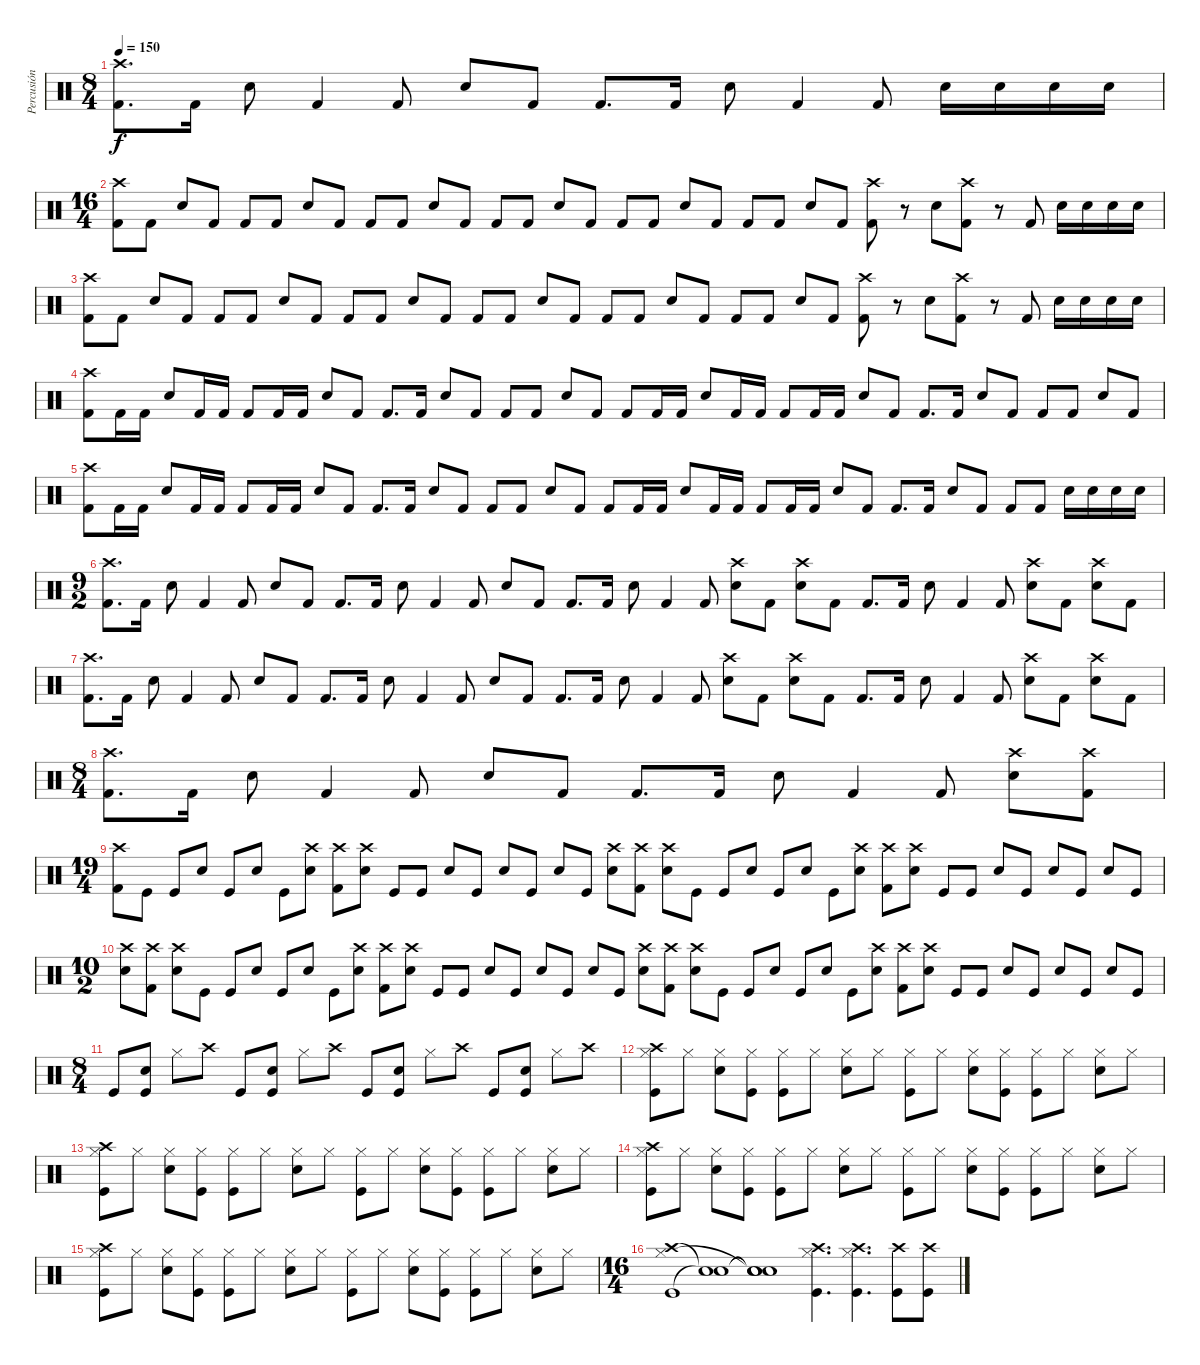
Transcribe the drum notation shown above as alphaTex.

\track ("Percusión" "Percusión") {instrument percussion bank 10}
\staff {score}
\articulation defaults
\ts (8 4)
\tempo 150
\clef neutral
\ks c
("Kick (hit) 2" "Crash high (hit)").8{d dy f} "Kick (hit) 2".16 "Snare (hit) 2".8 "Kick (hit) 2".4 "Kick (hit) 2".8 "Snare (hit) 2".8 "Kick (hit) 2".8 "Kick (hit) 2".8{d} "Kick (hit) 2".16 "Snare (hit) 2".8 "Kick (hit) 2".4 "Kick (hit) 2".8 "Snare (hit) 2".16 "Snare (hit) 2".16 "Snare (hit) 2".16 "Snare (hit) 2".16 |
\ts (16 4)
("Kick (hit) 2" "Crash high (hit)").8 "Kick (hit) 2".8 "Snare (hit) 2".8 "Kick (hit) 2".8 "Kick (hit) 2".8 "Kick (hit) 2".8 "Snare (hit) 2".8 "Kick (hit) 2".8 "Kick (hit) 2".8 "Kick (hit) 2".8 "Snare (hit) 2".8 "Kick (hit) 2".8 "Kick (hit) 2".8 "Kick (hit) 2".8 "Snare (hit) 2".8 "Kick (hit) 2".8 "Kick (hit) 2".8 "Kick (hit) 2".8 "Snare (hit) 2".8 "Kick (hit) 2".8 "Kick (hit) 2".8 "Kick (hit) 2".8 "Snare (hit) 2".8 "Kick (hit) 2".8 ("Kick (hit) 2" "Crash high (hit)").8 r.8 "Snare (hit) 2".8 ("Kick (hit) 2" "Crash high (hit)").8 r.8 "Kick (hit) 2".8 "Snare (hit) 2".16 "Snare (hit) 2".16 "Snare (hit) 2".16 "Snare (hit) 2".16 |
("Kick (hit) 2" "Crash high (hit)").8 "Kick (hit) 2".8 "Snare (hit) 2".8 "Kick (hit) 2".8 "Kick (hit) 2".8 "Kick (hit) 2".8 "Snare (hit) 2".8 "Kick (hit) 2".8 "Kick (hit) 2".8 "Kick (hit) 2".8 "Snare (hit) 2".8 "Kick (hit) 2".8 "Kick (hit) 2".8 "Kick (hit) 2".8 "Snare (hit) 2".8 "Kick (hit) 2".8 "Kick (hit) 2".8 "Kick (hit) 2".8 "Snare (hit) 2".8 "Kick (hit) 2".8 "Kick (hit) 2".8 "Kick (hit) 2".8 "Snare (hit) 2".8 "Kick (hit) 2".8 ("Kick (hit) 2" "Crash high (hit)").8 r.8 "Snare (hit) 2".8 ("Kick (hit) 2" "Crash high (hit)").8 r.8 "Kick (hit) 2".8 "Snare (hit) 2".16 "Snare (hit) 2".16 "Snare (hit) 2".16 "Snare (hit) 2".16 |
("Kick (hit) 2" "Crash high (hit)").8 "Kick (hit) 2".16 "Kick (hit) 2".16 "Snare (hit) 2".8 "Kick (hit) 2".16 "Kick (hit) 2".16 "Kick (hit) 2".8 "Kick (hit) 2".16 "Kick (hit) 2".16 "Snare (hit) 2".8 "Kick (hit) 2".8 "Kick (hit) 2".8{d} "Kick (hit) 2".16 "Snare (hit) 2".8 "Kick (hit) 2".8 "Kick (hit) 2".8 "Kick (hit) 2".8 "Snare (hit) 2".8 "Kick (hit) 2".8 "Kick (hit) 2".8 "Kick (hit) 2".16 "Kick (hit) 2".16 "Snare (hit) 2".8 "Kick (hit) 2".16 "Kick (hit) 2".16 "Kick (hit) 2".8 "Kick (hit) 2".16 "Kick (hit) 2".16 "Snare (hit) 2".8 "Kick (hit) 2".8 "Kick (hit) 2".8{d} "Kick (hit) 2".16 "Snare (hit) 2".8 "Kick (hit) 2".8 "Kick (hit) 2".8 "Kick (hit) 2".8 "Snare (hit) 2".8 "Kick (hit) 2".8 |
("Kick (hit) 2" "Crash high (hit)").8 "Kick (hit) 2".16 "Kick (hit) 2".16 "Snare (hit) 2".8 "Kick (hit) 2".16 "Kick (hit) 2".16 "Kick (hit) 2".8 "Kick (hit) 2".16 "Kick (hit) 2".16 "Snare (hit) 2".8 "Kick (hit) 2".8 "Kick (hit) 2".8{d} "Kick (hit) 2".16 "Snare (hit) 2".8 "Kick (hit) 2".8 "Kick (hit) 2".8 "Kick (hit) 2".8 "Snare (hit) 2".8 "Kick (hit) 2".8 "Kick (hit) 2".8 "Kick (hit) 2".16 "Kick (hit) 2".16 "Snare (hit) 2".8 "Kick (hit) 2".16 "Kick (hit) 2".16 "Kick (hit) 2".8 "Kick (hit) 2".16 "Kick (hit) 2".16 "Snare (hit) 2".8 "Kick (hit) 2".8 "Kick (hit) 2".8{d} "Kick (hit) 2".16 "Snare (hit) 2".8 "Kick (hit) 2".8 "Kick (hit) 2".8 "Kick (hit) 2".8 "Snare (hit) 2".16 "Snare (hit) 2".16 "Snare (hit) 2".16 "Snare (hit) 2".16 |
\ts (9 2)
("Kick (hit) 2" "Crash high (hit)").8{d} "Kick (hit) 2".16 "Snare (hit) 2".8 "Kick (hit) 2".4 "Kick (hit) 2".8 "Snare (hit) 2".8 "Kick (hit) 2".8 "Kick (hit) 2".8{d} "Kick (hit) 2".16 "Snare (hit) 2".8 "Kick (hit) 2".4 "Kick (hit) 2".8 "Snare (hit) 2".8 "Kick (hit) 2".8 "Kick (hit) 2".8{d} "Kick (hit) 2".16 "Snare (hit) 2".8 "Kick (hit) 2".4 "Kick (hit) 2".8 ("Snare (hit) 2" "Crash high (hit)").8 "Kick (hit) 2".8 ("Snare (hit) 2" "Crash high (hit)").8 "Kick (hit) 2".8 "Kick (hit) 2".8{d} "Kick (hit) 2".16 "Snare (hit) 2".8 "Kick (hit) 2".4 "Kick (hit) 2".8 ("Snare (hit) 2" "Crash high (hit)").8 "Kick (hit) 2".8 ("Snare (hit) 2" "Crash high (hit)").8 "Kick (hit) 2".8 |
("Kick (hit) 2" "Crash high (hit)").8{d} "Kick (hit) 2".16 "Snare (hit) 2".8 "Kick (hit) 2".4 "Kick (hit) 2".8 "Snare (hit) 2".8 "Kick (hit) 2".8 "Kick (hit) 2".8{d} "Kick (hit) 2".16 "Snare (hit) 2".8 "Kick (hit) 2".4 "Kick (hit) 2".8 "Snare (hit) 2".8 "Kick (hit) 2".8 "Kick (hit) 2".8{d} "Kick (hit) 2".16 "Snare (hit) 2".8 "Kick (hit) 2".4 "Kick (hit) 2".8 ("Snare (hit) 2" "Crash high (hit)").8 "Kick (hit) 2".8 ("Snare (hit) 2" "Crash high (hit)").8 "Kick (hit) 2".8 "Kick (hit) 2".8{d} "Kick (hit) 2".16 "Snare (hit) 2".8 "Kick (hit) 2".4 "Kick (hit) 2".8 ("Snare (hit) 2" "Crash high (hit)").8 "Kick (hit) 2".8 ("Snare (hit) 2" "Crash high (hit)").8 "Kick (hit) 2".8 |
\ts (8 4)
("Kick (hit) 2" "Crash high (hit)").8{d} "Kick (hit) 2".16 "Snare (hit) 2".8 "Kick (hit) 2".4 "Kick (hit) 2".8 "Snare (hit) 2".8 "Kick (hit) 2".8 "Kick (hit) 2".8{d} "Kick (hit) 2".16 "Snare (hit) 2".8 "Kick (hit) 2".4 "Kick (hit) 2".8 ("Crash high (hit)" "Snare (hit) 2").8 ("Kick (hit) 2" "Crash high (hit)").8 |
\ts (19 4)
("Kick (hit) 2" "Crash high (hit)").8 "Kick (hit)".8 "Kick (hit)".8 "Snare (hit) 2".8 "Kick (hit)".8 "Snare (hit) 2".8 "Kick (hit)".8 ("Crash high (hit)" "Snare (hit) 2").8 ("Kick (hit) 2" "Crash high (hit)").8 ("Crash high (hit)" "Snare (hit) 2").8 "Kick (hit)".8 "Kick (hit)".8 "Snare (hit) 2".8 "Kick (hit)".8 "Snare (hit) 2".8 "Kick (hit)".8 "Snare (hit) 2".8 "Kick (hit)".8 ("Crash high (hit)" "Snare (hit) 2").8 ("Kick (hit) 2" "Crash high (hit)").8 ("Crash high (hit)" "Snare (hit) 2").8 "Kick (hit)".8 "Kick (hit)".8 "Snare (hit) 2".8 "Kick (hit)".8 "Snare (hit) 2".8 "Kick (hit)".8 ("Crash high (hit)" "Snare (hit) 2").8 ("Kick (hit) 2" "Crash high (hit)").8 ("Crash high (hit)" "Snare (hit) 2").8 "Kick (hit)".8 "Kick (hit)".8 "Snare (hit) 2".8 "Kick (hit)".8 "Snare (hit) 2".8 "Kick (hit)".8 "Snare (hit) 2".8 "Kick (hit)".8 |
\ts (10 2)
("Crash high (hit)" "Snare (hit) 2").8 ("Kick (hit) 2" "Crash high (hit)").8 ("Crash high (hit)" "Snare (hit) 2").8 "Kick (hit)".8 "Kick (hit)".8 "Snare (hit) 2".8 "Kick (hit)".8 "Snare (hit) 2".8 "Kick (hit)".8 ("Crash high (hit)" "Snare (hit) 2").8 ("Kick (hit) 2" "Crash high (hit)").8 ("Crash high (hit)" "Snare (hit) 2").8 "Kick (hit)".8 "Kick (hit)".8 "Snare (hit) 2".8 "Kick (hit)".8 "Snare (hit) 2".8 "Kick (hit)".8 "Snare (hit) 2".8 "Kick (hit)".8 ("Crash high (hit)" "Snare (hit) 2").8 ("Kick (hit) 2" "Crash high (hit)").8 ("Crash high (hit)" "Snare (hit) 2").8 "Kick (hit)".8 "Kick (hit)".8 "Snare (hit) 2".8 "Kick (hit)".8 "Snare (hit) 2".8 "Kick (hit)".8 ("Crash high (hit)" "Snare (hit) 2").8 ("Kick (hit) 2" "Crash high (hit)").8 ("Crash high (hit)" "Snare (hit) 2").8 "Kick (hit)".8 "Kick (hit)".8 "Snare (hit) 2".8 "Kick (hit)".8 "Snare (hit) 2".8 "Kick (hit)".8 "Snare (hit) 2".8 "Kick (hit)".8 |
\ts (8 4)
"Kick (hit)".8 ("Kick (hit)" "Snare (hit) 2").8 "Hi-Hat (closed)".8 "Crash high (hit)".8 "Kick (hit)".8 ("Kick (hit)" "Snare (hit) 2").8 "Hi-Hat (closed)".8 "Crash high (hit)".8 "Kick (hit)".8 ("Kick (hit)" "Snare (hit) 2").8 "Hi-Hat (closed)".8 "Crash high (hit)".8 "Kick (hit)".8 ("Kick (hit)" "Snare (hit) 2").8 "Hi-Hat (closed)".8 "Crash high (hit)".8 |
("Crash high (hit)" "Kick (hit)" "Hi-Hat (closed)").8 "Hi-Hat (closed)".8 ("Snare (hit) 2" "Hi-Hat (closed)").8 ("Kick (hit)" "Hi-Hat (closed)").8 ("Kick (hit)" "Hi-Hat (closed)").8 "Hi-Hat (closed)".8 ("Snare (hit) 2" "Hi-Hat (closed)").8 "Hi-Hat (closed)".8 ("Kick (hit)" "Hi-Hat (closed)").8 "Hi-Hat (closed)".8 ("Snare (hit) 2" "Hi-Hat (closed)").8 ("Kick (hit)" "Hi-Hat (closed)").8 ("Kick (hit)" "Hi-Hat (closed)").8 "Hi-Hat (closed)".8 ("Snare (hit) 2" "Hi-Hat (closed)").8 "Hi-Hat (closed)".8 |
("Crash high (hit)" "Kick (hit)" "Hi-Hat (closed)").8 "Hi-Hat (closed)".8 ("Snare (hit) 2" "Hi-Hat (closed)").8 ("Kick (hit)" "Hi-Hat (closed)").8 ("Kick (hit)" "Hi-Hat (closed)").8 "Hi-Hat (closed)".8 ("Snare (hit) 2" "Hi-Hat (closed)").8 "Hi-Hat (closed)".8 ("Kick (hit)" "Hi-Hat (closed)").8 "Hi-Hat (closed)".8 ("Snare (hit) 2" "Hi-Hat (closed)").8 ("Kick (hit)" "Hi-Hat (closed)").8 ("Kick (hit)" "Hi-Hat (closed)").8 "Hi-Hat (closed)".8 ("Snare (hit) 2" "Hi-Hat (closed)").8 "Hi-Hat (closed)".8 |
("Crash high (hit)" "Kick (hit)" "Hi-Hat (closed)").8 "Hi-Hat (closed)".8 ("Snare (hit) 2" "Hi-Hat (closed)").8 ("Kick (hit)" "Hi-Hat (closed)").8 ("Kick (hit)" "Hi-Hat (closed)").8 "Hi-Hat (closed)".8 ("Snare (hit) 2" "Hi-Hat (closed)").8 "Hi-Hat (closed)".8 ("Kick (hit)" "Hi-Hat (closed)").8 "Hi-Hat (closed)".8 ("Snare (hit) 2" "Hi-Hat (closed)").8 ("Kick (hit)" "Hi-Hat (closed)").8 ("Kick (hit)" "Hi-Hat (closed)").8 "Hi-Hat (closed)".8 ("Snare (hit) 2" "Hi-Hat (closed)").8 "Hi-Hat (closed)".8 |
("Crash high (hit)" "Kick (hit)" "Hi-Hat (closed)").8 "Hi-Hat (closed)".8 ("Snare (hit) 2" "Hi-Hat (closed)").8 ("Kick (hit)" "Hi-Hat (closed)").8 ("Kick (hit)" "Hi-Hat (closed)").8 "Hi-Hat (closed)".8 ("Snare (hit) 2" "Hi-Hat (closed)").8 "Hi-Hat (closed)".8 ("Kick (hit)" "Hi-Hat (closed)").8 "Hi-Hat (closed)".8 ("Snare (hit) 2" "Hi-Hat (closed)").8 ("Kick (hit)" "Hi-Hat (closed)").8 ("Kick (hit)" "Hi-Hat (closed)").8 "Hi-Hat (closed)".8 ("Snare (hit) 2" "Hi-Hat (closed)").8 "Hi-Hat (closed)".8 |
\ts (16 4)
("Crash high (hit)" "Kick (hit)" "Hi-Hat (closed)").1 ("Snare (hit)"{t} "Snare (hit)"{t}).1 ("Snare (hit)"{t} "Snare (hit)"{t} "Snare (hit)"{t}).1 ("Crash high (hit)" "Kick (hit)" "Hi-Hat (closed)").4{d} ("Crash high (hit)" "Kick (hit)" "Hi-Hat (closed)").4{d} ("Crash high (hit)" "Kick (hit)").8 ("Crash high (hit)" "Kick (hit)").8
